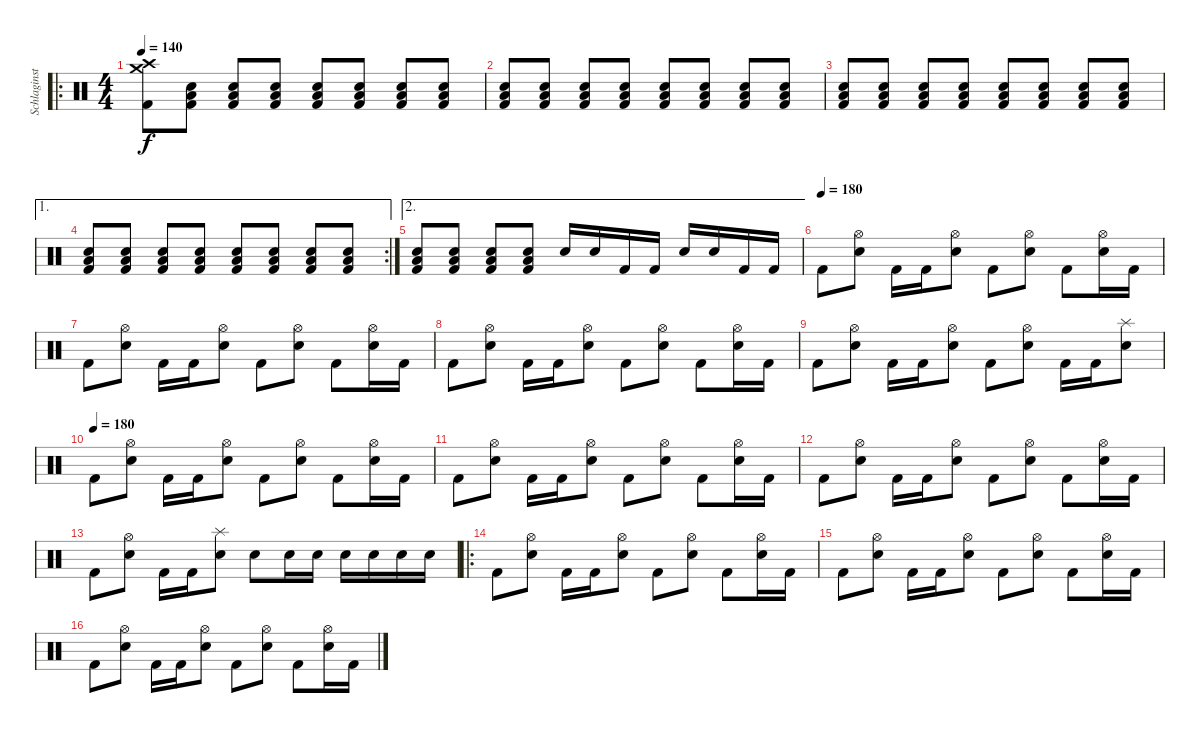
\track ("Schlaginstrumente - Auswahl" "Schlaginst") {instrument percussion}
\staff {score}
\articulation defaults
\ro
\ts (4 4)
\tempo 140
\clef neutral
\ks c
("Crash medium (hit)" "Crash high (hit)" "Kick (hit) 2").8{dy f} ("Low Tom (hit)" "Snare (hit) 2" "Kick (hit) 2").8 ("Low Tom (hit)" "Snare (hit) 2" "Kick (hit) 2").8 ("Low Tom (hit)" "Snare (hit) 2" "Kick (hit) 2").8 ("Low Tom (hit)" "Snare (hit) 2" "Kick (hit) 2").8 ("Low Tom (hit)" "Snare (hit) 2" "Kick (hit) 2").8 ("Low Tom (hit)" "Snare (hit) 2" "Kick (hit) 2").8 ("Low Tom (hit)" "Snare (hit) 2" "Kick (hit) 2").8 |
("Low Tom (hit)" "Snare (hit) 2" "Kick (hit) 2").8 ("Low Tom (hit)" "Snare (hit) 2" "Kick (hit) 2").8 ("Low Tom (hit)" "Snare (hit) 2" "Kick (hit) 2").8 ("Low Tom (hit)" "Snare (hit) 2" "Kick (hit) 2").8 ("Low Tom (hit)" "Snare (hit) 2" "Kick (hit) 2").8 ("Low Tom (hit)" "Snare (hit) 2" "Kick (hit) 2").8 ("Low Tom (hit)" "Snare (hit) 2" "Kick (hit) 2").8 ("Low Tom (hit)" "Snare (hit) 2" "Kick (hit) 2").8 |
("Low Tom (hit)" "Snare (hit) 2" "Kick (hit) 2").8 ("Low Tom (hit)" "Snare (hit) 2" "Kick (hit) 2").8 ("Low Tom (hit)" "Snare (hit) 2" "Kick (hit) 2").8 ("Low Tom (hit)" "Snare (hit) 2" "Kick (hit) 2").8 ("Low Tom (hit)" "Snare (hit) 2" "Kick (hit) 2").8 ("Low Tom (hit)" "Snare (hit) 2" "Kick (hit) 2").8 ("Low Tom (hit)" "Snare (hit) 2" "Kick (hit) 2").8 ("Low Tom (hit)" "Snare (hit) 2" "Kick (hit) 2").8 |
\ae 1
\rc 2
("Low Tom (hit)" "Snare (hit) 2" "Kick (hit) 2").8 ("Low Tom (hit)" "Snare (hit) 2" "Kick (hit) 2").8 ("Low Tom (hit)" "Snare (hit) 2" "Kick (hit) 2").8 ("Low Tom (hit)" "Snare (hit) 2" "Kick (hit) 2").8 ("Low Tom (hit)" "Snare (hit) 2" "Kick (hit) 2").8 ("Low Tom (hit)" "Snare (hit) 2" "Kick (hit) 2").8 ("Low Tom (hit)" "Snare (hit) 2" "Kick (hit) 2").8 ("Low Tom (hit)" "Snare (hit) 2" "Kick (hit) 2").8 |
\ae 2
("Low Tom (hit)" "Snare (hit) 2" "Kick (hit) 2").8 ("Low Tom (hit)" "Snare (hit) 2" "Kick (hit) 2").8 ("Low Tom (hit)" "Snare (hit) 2" "Kick (hit) 2").8 ("Low Tom (hit)" "Snare (hit) 2" "Kick (hit) 2").8 "Snare (hit) 2".16 "Snare (hit) 2".16 "Kick (hit) 2".16 "Kick (hit) 2".16 "Snare (hit) 2".16 "Snare (hit) 2".16 "Kick (hit) 2".16 "Kick (hit) 2".16 |
\tempo (180)
"Kick (hit) 2".8 ("Hi-Hat (open)" "Snare (hit) 2").8 "Kick (hit) 2".16 "Kick (hit) 2".16 ("Hi-Hat (open)" "Snare (hit) 2").8 "Kick (hit) 2".8 ("Hi-Hat (open)" "Snare (hit) 2").8 "Kick (hit) 2".8 ("Hi-Hat (open)" "Snare (hit) 2").16 "Kick (hit) 2".16 |
"Kick (hit) 2".8 ("Hi-Hat (open)" "Snare (hit) 2").8 "Kick (hit) 2".16 "Kick (hit) 2".16 ("Hi-Hat (open)" "Snare (hit) 2").8 "Kick (hit) 2".8 ("Hi-Hat (open)" "Snare (hit) 2").8 "Kick (hit) 2".8 ("Hi-Hat (open)" "Snare (hit) 2").16 "Kick (hit) 2".16 |
"Kick (hit) 2".8 ("Hi-Hat (open)" "Snare (hit) 2").8 "Kick (hit) 2".16 "Kick (hit) 2".16 ("Hi-Hat (open)" "Snare (hit) 2").8 "Kick (hit) 2".8 ("Hi-Hat (open)" "Snare (hit) 2").8 "Kick (hit) 2".8 ("Hi-Hat (open)" "Snare (hit) 2").16 "Kick (hit) 2".16 |
"Kick (hit) 2".8 ("Hi-Hat (open)" "Snare (hit) 2").8 "Kick (hit) 2".16 "Kick (hit) 2".16 ("Hi-Hat (open)" "Snare (hit) 2").8 "Kick (hit) 2".8 ("Hi-Hat (open)" "Snare (hit) 2").8 "Kick (hit) 2".16 "Kick (hit) 2".16 ("Splash (hit)" "Snare (hit) 2").8 |
\tempo (180)
"Kick (hit) 2".8 ("Hi-Hat (open)" "Snare (hit) 2").8 "Kick (hit) 2".16 "Kick (hit) 2".16 ("Hi-Hat (open)" "Snare (hit) 2").8 "Kick (hit) 2".8 ("Hi-Hat (open)" "Snare (hit) 2").8 "Kick (hit) 2".8 ("Hi-Hat (open)" "Snare (hit) 2").16 "Kick (hit) 2".16 |
"Kick (hit) 2".8 ("Hi-Hat (open)" "Snare (hit) 2").8 "Kick (hit) 2".16 "Kick (hit) 2".16 ("Hi-Hat (open)" "Snare (hit) 2").8 "Kick (hit) 2".8 ("Hi-Hat (open)" "Snare (hit) 2").8 "Kick (hit) 2".8 ("Hi-Hat (open)" "Snare (hit) 2").16 "Kick (hit) 2".16 |
"Kick (hit) 2".8 ("Hi-Hat (open)" "Snare (hit) 2").8 "Kick (hit) 2".16 "Kick (hit) 2".16 ("Hi-Hat (open)" "Snare (hit) 2").8 "Kick (hit) 2".8 ("Hi-Hat (open)" "Snare (hit) 2").8 "Kick (hit) 2".8 ("Hi-Hat (open)" "Snare (hit) 2").16 "Kick (hit) 2".16 |
"Kick (hit) 2".8 ("Hi-Hat (open)" "Snare (hit) 2").8 "Kick (hit) 2".16 "Kick (hit) 2".16 ("Splash (hit)" "Snare (hit) 2").8 "Snare (hit) 2".8 "Snare (hit) 2".16 "Snare (hit) 2".16 "Snare (hit) 2".16 "Snare (hit) 2".16 "Snare (hit) 2".16 "Snare (hit) 2".16 |
\ro "Kick (hit) 2".8
("Hi-Hat (open)" "Snare (hit) 2").8 "Kick (hit) 2".16 "Kick (hit) 2".16 ("Hi-Hat (open)" "Snare (hit) 2").8 "Kick (hit) 2".8 ("Hi-Hat (open)" "Snare (hit) 2").8 "Kick (hit) 2".8 ("Hi-Hat (open)" "Snare (hit) 2").16 "Kick (hit) 2".16 |
"Kick (hit) 2".8 ("Hi-Hat (open)" "Snare (hit) 2").8 "Kick (hit) 2".16 "Kick (hit) 2".16 ("Hi-Hat (open)" "Snare (hit) 2").8 "Kick (hit) 2".8 ("Hi-Hat (open)" "Snare (hit) 2").8 "Kick (hit) 2".8 ("Hi-Hat (open)" "Snare (hit) 2").16 "Kick (hit) 2".16 |
"Kick (hit) 2".8 ("Hi-Hat (open)" "Snare (hit) 2").8 "Kick (hit) 2".16 "Kick (hit) 2".16 ("Hi-Hat (open)" "Snare (hit) 2").8 "Kick (hit) 2".8 ("Hi-Hat (open)" "Snare (hit) 2").8 "Kick (hit) 2".8 ("Hi-Hat (open)" "Snare (hit) 2").16 "Kick (hit) 2".16
